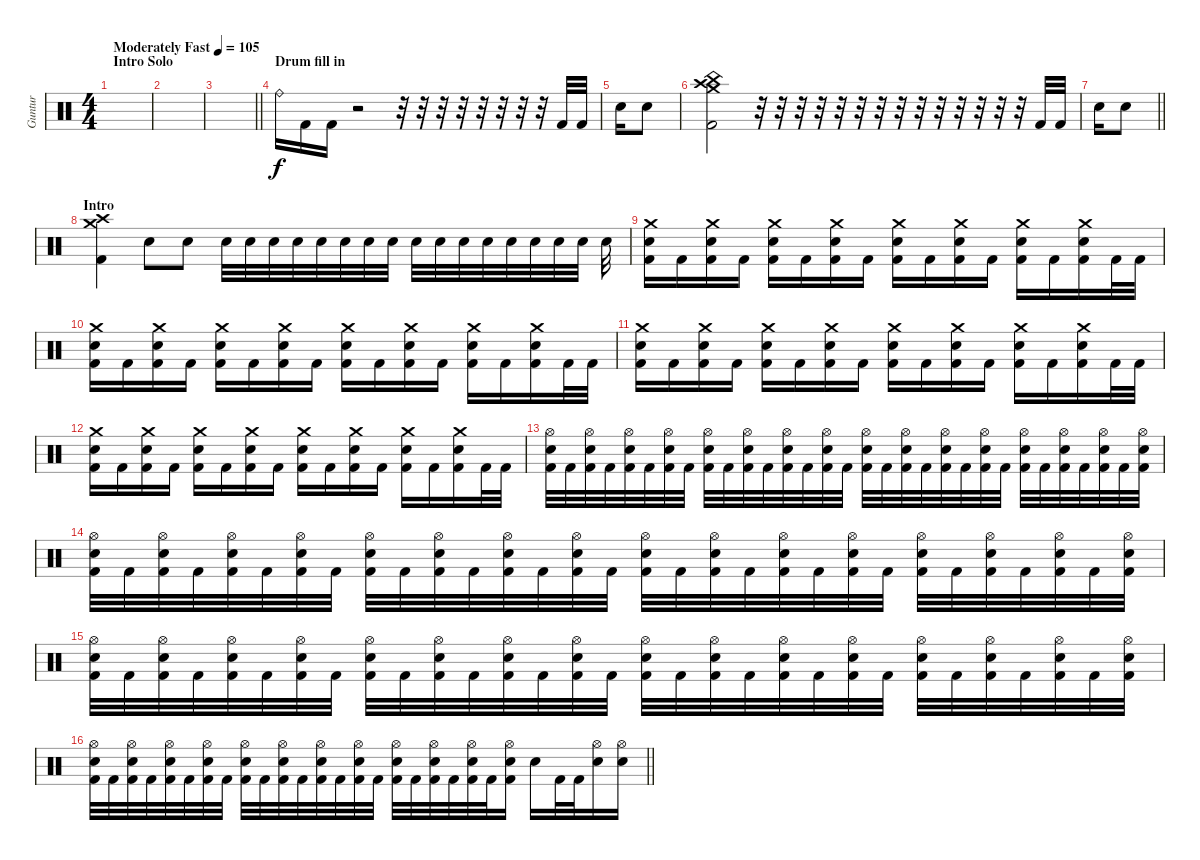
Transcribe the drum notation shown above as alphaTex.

\track ("Guntur" "Guntur") {instrument percussion}
\staff {score}
\articulation defaults
\ts (4 4)
\section ("" "Intro Solo")
\tempo (105 "Moderately Fast")
\clef neutral
\ks c
|
|
\barLineRight lightlight
|
\section ("" "Drum fill in")
"Ride (bell)".16 "Kick (hit) 2".16 "Kick (hit) 2".16 r.2 r.32 r.32 r.32 r.32 r.32 r.32 r.32 r.32 "Kick (hit) 2".32 "Kick (hit) 2".32 |
"Electric Snare (hit)".16 "Electric Snare (hit)".8 |
("Crash medium (hit)" "Crash high (hit)" "China (hit)" "Kick (hit) 2").2 r.32 r.32 r.32 r.32 r.32 r.32 r.32 r.32 r.32 r.32 r.32 r.32 r.32 r.32 "Kick (hit) 2".32 "Kick (hit) 2".32 |
\barLineRight lightlight "Electric Snare (hit)".16 "Electric Snare (hit)".8
|
\section ("" "Intro")
("Crash medium (hit)" "Crash high (hit)" "Kick (hit) 2").4 "Electric Snare (hit)".8 "Electric Snare (hit)".8 "Electric Snare (hit)".32 "Electric Snare (hit)".32 "Electric Snare (hit)".32 "Electric Snare (hit)".32 "Electric Snare (hit)".32 "Electric Snare (hit)".32 "Electric Snare (hit)".32 "Electric Snare (hit)".32 "Electric Snare (hit)".32 "Electric Snare (hit)".32 "Electric Snare (hit)".32 "Electric Snare (hit)".32 "Electric Snare (hit)".32 "Electric Snare (hit)".32 "Electric Snare (hit)".32 "Electric Snare (hit)".32 "Electric Snare (hit)".32 |
("Crash medium (hit)" "Electric Snare (hit)" "Kick (hit) 2").16 "Kick (hit) 2".16 ("Crash medium (hit)" "Electric Snare (hit)" "Kick (hit) 2").16 "Kick (hit) 2".16 ("Crash medium (hit)" "Electric Snare (hit)" "Kick (hit) 2").16 "Kick (hit) 2".16 ("Crash medium (hit)" "Electric Snare (hit)" "Kick (hit) 2").16 "Kick (hit) 2".16 ("Crash medium (hit)" "Electric Snare (hit)" "Kick (hit) 2").16 "Kick (hit) 2".16 ("Crash medium (hit)" "Electric Snare (hit)" "Kick (hit) 2").16 "Kick (hit) 2".16 ("Crash medium (hit)" "Electric Snare (hit)" "Kick (hit) 2").16 "Kick (hit) 2".16 ("Crash medium (hit)" "Electric Snare (hit)" "Kick (hit) 2").16 "Kick (hit) 2".32 "Kick (hit) 2".32 |
("Crash medium (hit)" "Electric Snare (hit)" "Kick (hit) 2").16 "Kick (hit) 2".16 ("Crash medium (hit)" "Electric Snare (hit)" "Kick (hit) 2").16 "Kick (hit) 2".16 ("Crash medium (hit)" "Electric Snare (hit)" "Kick (hit) 2").16 "Kick (hit) 2".16 ("Crash medium (hit)" "Electric Snare (hit)" "Kick (hit) 2").16 "Kick (hit) 2".16 ("Crash medium (hit)" "Electric Snare (hit)" "Kick (hit) 2").16 "Kick (hit) 2".16 ("Crash medium (hit)" "Electric Snare (hit)" "Kick (hit) 2").16 "Kick (hit) 2".16 ("Crash medium (hit)" "Electric Snare (hit)" "Kick (hit) 2").16 "Kick (hit) 2".16 ("Crash medium (hit)" "Electric Snare (hit)" "Kick (hit) 2").16 "Kick (hit) 2".32 "Kick (hit) 2".32 |
("Crash medium (hit)" "Electric Snare (hit)" "Kick (hit) 2").16 "Kick (hit) 2".16 ("Crash medium (hit)" "Electric Snare (hit)" "Kick (hit) 2").16 "Kick (hit) 2".16 ("Crash medium (hit)" "Electric Snare (hit)" "Kick (hit) 2").16 "Kick (hit) 2".16 ("Crash medium (hit)" "Electric Snare (hit)" "Kick (hit) 2").16 "Kick (hit) 2".16 ("Crash medium (hit)" "Electric Snare (hit)" "Kick (hit) 2").16 "Kick (hit) 2".16 ("Crash medium (hit)" "Electric Snare (hit)" "Kick (hit) 2").16 "Kick (hit) 2".16 ("Crash medium (hit)" "Electric Snare (hit)" "Kick (hit) 2").16 "Kick (hit) 2".16 ("Crash medium (hit)" "Electric Snare (hit)" "Kick (hit) 2").16 "Kick (hit) 2".32 "Kick (hit) 2".32 |
("Crash medium (hit)" "Electric Snare (hit)" "Kick (hit) 2").16 "Kick (hit) 2".16 ("Crash medium (hit)" "Electric Snare (hit)" "Kick (hit) 2").16 "Kick (hit) 2".16 ("Crash medium (hit)" "Electric Snare (hit)" "Kick (hit) 2").16 "Kick (hit) 2".16 ("Crash medium (hit)" "Electric Snare (hit)" "Kick (hit) 2").16 "Kick (hit) 2".16 ("Crash medium (hit)" "Electric Snare (hit)" "Kick (hit) 2").16 "Kick (hit) 2".16 ("Crash medium (hit)" "Electric Snare (hit)" "Kick (hit) 2").16 "Kick (hit) 2".16 ("Crash medium (hit)" "Electric Snare (hit)" "Kick (hit) 2").16 "Kick (hit) 2".16 ("Crash medium (hit)" "Electric Snare (hit)" "Kick (hit) 2").16 "Kick (hit) 2".32 "Kick (hit) 2".32 |
("Hi-Hat (open)" "Electric Snare (hit)" "Kick (hit) 2").32 "Kick (hit) 2".32 ("Hi-Hat (open)" "Electric Snare (hit)" "Kick (hit) 2").32 "Kick (hit) 2".32 ("Hi-Hat (open)" "Electric Snare (hit)" "Kick (hit) 2").32 "Kick (hit) 2".32 ("Hi-Hat (open)" "Electric Snare (hit)" "Kick (hit) 2").32 "Kick (hit) 2".32 ("Hi-Hat (open)" "Electric Snare (hit)" "Kick (hit) 2").32 "Kick (hit) 2".32 ("Hi-Hat (open)" "Electric Snare (hit)" "Kick (hit) 2").32 "Kick (hit) 2".32 ("Hi-Hat (open)" "Electric Snare (hit)" "Kick (hit) 2").32 "Kick (hit) 2".32 ("Hi-Hat (open)" "Electric Snare (hit)" "Kick (hit) 2").32 "Kick (hit) 2".32 ("Hi-Hat (open)" "Electric Snare (hit)" "Kick (hit) 2").32 "Kick (hit) 2".32 ("Hi-Hat (open)" "Electric Snare (hit)" "Kick (hit) 2").32 "Kick (hit) 2".32 ("Hi-Hat (open)" "Electric Snare (hit)" "Kick (hit) 2").32 "Kick (hit) 2".32 ("Hi-Hat (open)" "Electric Snare (hit)" "Kick (hit) 2").32 "Kick (hit) 2".32 ("Hi-Hat (open)" "Electric Snare (hit)" "Kick (hit) 2").32 "Kick (hit) 2".32 ("Hi-Hat (open)" "Electric Snare (hit)" "Kick (hit) 2").32 "Kick (hit) 2".32 ("Hi-Hat (open)" "Electric Snare (hit)" "Kick (hit) 2").32 "Kick (hit) 2".32 ("Hi-Hat (open)" "Electric Snare (hit)" "Kick (hit) 2").32 |
("Hi-Hat (open)" "Electric Snare (hit)" "Kick (hit) 2").32 "Kick (hit) 2".32 ("Hi-Hat (open)" "Electric Snare (hit)" "Kick (hit) 2").32 "Kick (hit) 2".32 ("Hi-Hat (open)" "Electric Snare (hit)" "Kick (hit) 2").32 "Kick (hit) 2".32 ("Hi-Hat (open)" "Electric Snare (hit)" "Kick (hit) 2").32 "Kick (hit) 2".32 ("Hi-Hat (open)" "Electric Snare (hit)" "Kick (hit) 2").32 "Kick (hit) 2".32 ("Hi-Hat (open)" "Electric Snare (hit)" "Kick (hit) 2").32 "Kick (hit) 2".32 ("Hi-Hat (open)" "Electric Snare (hit)" "Kick (hit) 2").32 "Kick (hit) 2".32 ("Hi-Hat (open)" "Electric Snare (hit)" "Kick (hit) 2").32 "Kick (hit) 2".32 ("Hi-Hat (open)" "Electric Snare (hit)" "Kick (hit) 2").32 "Kick (hit) 2".32 ("Hi-Hat (open)" "Electric Snare (hit)" "Kick (hit) 2").32 "Kick (hit) 2".32 ("Hi-Hat (open)" "Electric Snare (hit)" "Kick (hit) 2").32 "Kick (hit) 2".32 ("Hi-Hat (open)" "Electric Snare (hit)" "Kick (hit) 2").32 "Kick (hit) 2".32 ("Hi-Hat (open)" "Electric Snare (hit)" "Kick (hit) 2").32 "Kick (hit) 2".32 ("Hi-Hat (open)" "Electric Snare (hit)" "Kick (hit) 2").32 "Kick (hit) 2".32 ("Hi-Hat (open)" "Electric Snare (hit)" "Kick (hit) 2").32 "Kick (hit) 2".32 ("Hi-Hat (open)" "Electric Snare (hit)" "Kick (hit) 2").32 |
("Hi-Hat (open)" "Electric Snare (hit)" "Kick (hit) 2").32 "Kick (hit) 2".32 ("Hi-Hat (open)" "Electric Snare (hit)" "Kick (hit) 2").32 "Kick (hit) 2".32 ("Hi-Hat (open)" "Electric Snare (hit)" "Kick (hit) 2").32 "Kick (hit) 2".32 ("Hi-Hat (open)" "Electric Snare (hit)" "Kick (hit) 2").32 "Kick (hit) 2".32 ("Hi-Hat (open)" "Electric Snare (hit)" "Kick (hit) 2").32 "Kick (hit) 2".32 ("Hi-Hat (open)" "Electric Snare (hit)" "Kick (hit) 2").32 "Kick (hit) 2".32 ("Hi-Hat (open)" "Electric Snare (hit)" "Kick (hit) 2").32 "Kick (hit) 2".32 ("Hi-Hat (open)" "Electric Snare (hit)" "Kick (hit) 2").32 "Kick (hit) 2".32 ("Hi-Hat (open)" "Electric Snare (hit)" "Kick (hit) 2").32 "Kick (hit) 2".32 ("Hi-Hat (open)" "Electric Snare (hit)" "Kick (hit) 2").32 "Kick (hit) 2".32 ("Hi-Hat (open)" "Electric Snare (hit)" "Kick (hit) 2").32 "Kick (hit) 2".32 ("Hi-Hat (open)" "Electric Snare (hit)" "Kick (hit) 2").32 "Kick (hit) 2".32 ("Hi-Hat (open)" "Electric Snare (hit)" "Kick (hit) 2").32 "Kick (hit) 2".32 ("Hi-Hat (open)" "Electric Snare (hit)" "Kick (hit) 2").32 "Kick (hit) 2".32 ("Hi-Hat (open)" "Electric Snare (hit)" "Kick (hit) 2").32 "Kick (hit) 2".32 ("Hi-Hat (open)" "Electric Snare (hit)" "Kick (hit) 2").32 |
\barLineRight lightlight
("Hi-Hat (open)" "Electric Snare (hit)" "Kick (hit) 2").32 "Kick (hit) 2".32 ("Hi-Hat (open)" "Electric Snare (hit)" "Kick (hit) 2").32 "Kick (hit) 2".32 ("Hi-Hat (open)" "Electric Snare (hit)" "Kick (hit) 2").32 "Kick (hit) 2".32 ("Hi-Hat (open)" "Electric Snare (hit)" "Kick (hit) 2").32 "Kick (hit) 2".32 ("Hi-Hat (open)" "Electric Snare (hit)" "Kick (hit) 2").32 "Kick (hit) 2".32 ("Hi-Hat (open)" "Electric Snare (hit)" "Kick (hit) 2").32 "Kick (hit) 2".32 ("Hi-Hat (open)" "Electric Snare (hit)" "Kick (hit) 2").32 "Kick (hit) 2".32 ("Hi-Hat (open)" "Electric Snare (hit)" "Kick (hit) 2").32 "Kick (hit) 2".32 ("Hi-Hat (open)" "Electric Snare (hit)" "Kick (hit) 2").32 "Kick (hit) 2".32 ("Hi-Hat (open)" "Electric Snare (hit)" "Kick (hit) 2").32 "Kick (hit) 2".32 ("Hi-Hat (open)" "Electric Snare (hit)" "Kick (hit) 2").32 "Kick (hit) 2".32 ("Hi-Hat (open)" "Electric Snare (hit)" "Kick (hit) 2").16 "Electric Snare (hit)".16 "Kick (hit) 2".32 "Kick (hit) 2".32 ("Hi-Hat (open)" "Electric Snare (hit)").16 ("Hi-Hat (open)" "Electric Snare (hit)").16
